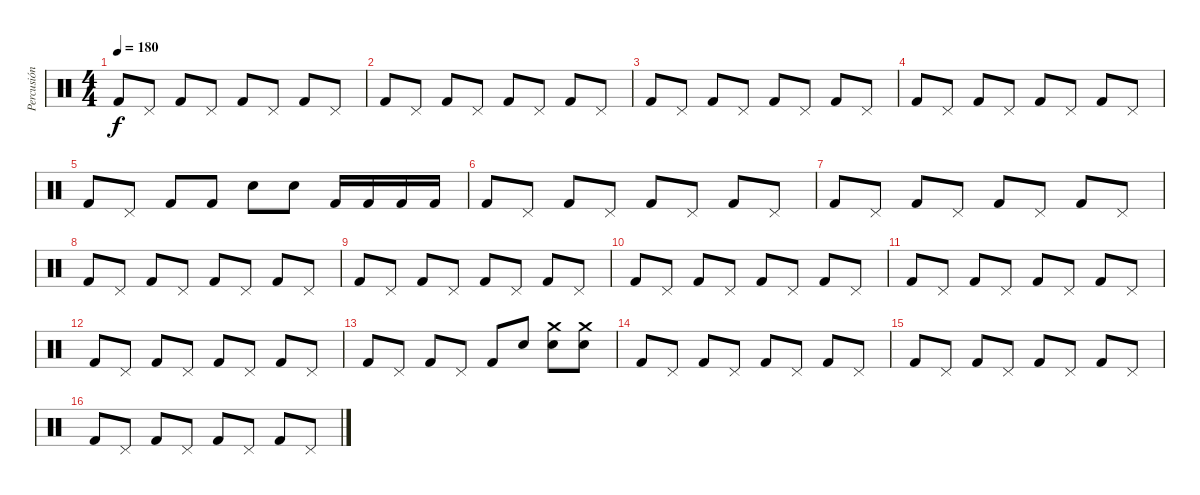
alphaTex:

\track ("Percusión" "Percusión") {instrument percussion}
\staff {score}
\articulation defaults
\ts (4 4)
\tempo 180
\clef neutral
\ks c "Kick (hit) 2".8{dy f} "Pedal Hi-Hat (hit)".8 "Kick (hit) 2".8 "Pedal Hi-Hat (hit)".8 "Kick (hit) 2".8 "Pedal Hi-Hat (hit)".8 "Kick (hit) 2".8 "Pedal Hi-Hat (hit)".8
|
"Kick (hit) 2".8 "Pedal Hi-Hat (hit)".8 "Kick (hit) 2".8 "Pedal Hi-Hat (hit)".8 "Kick (hit) 2".8 "Pedal Hi-Hat (hit)".8 "Kick (hit) 2".8 "Pedal Hi-Hat (hit)".8 |
"Kick (hit) 2".8 "Pedal Hi-Hat (hit)".8 "Kick (hit) 2".8 "Pedal Hi-Hat (hit)".8 "Kick (hit) 2".8 "Pedal Hi-Hat (hit)".8 "Kick (hit) 2".8 "Pedal Hi-Hat (hit)".8 |
"Kick (hit) 2".8 "Pedal Hi-Hat (hit)".8 "Kick (hit) 2".8 "Pedal Hi-Hat (hit)".8 "Kick (hit) 2".8 "Pedal Hi-Hat (hit)".8 "Kick (hit) 2".8 "Pedal Hi-Hat (hit)".8 |
"Kick (hit) 2".8 "Pedal Hi-Hat (hit)".8 "Kick (hit) 2".8 "Kick (hit) 2".8 "Snare (hit) 2".8 "Snare (hit) 2".8 "Kick (hit) 2".16 "Kick (hit) 2".16 "Kick (hit) 2".16 "Kick (hit) 2".16 |
"Kick (hit) 2".8 "Pedal Hi-Hat (hit)".8 "Kick (hit) 2".8 "Pedal Hi-Hat (hit)".8 "Kick (hit) 2".8 "Pedal Hi-Hat (hit)".8 "Kick (hit) 2".8 "Pedal Hi-Hat (hit)".8 |
"Kick (hit) 2".8 "Pedal Hi-Hat (hit)".8 "Kick (hit) 2".8 "Pedal Hi-Hat (hit)".8 "Kick (hit) 2".8 "Pedal Hi-Hat (hit)".8 "Kick (hit) 2".8 "Pedal Hi-Hat (hit)".8 |
"Kick (hit) 2".8 "Pedal Hi-Hat (hit)".8 "Kick (hit) 2".8 "Pedal Hi-Hat (hit)".8 "Kick (hit) 2".8 "Pedal Hi-Hat (hit)".8 "Kick (hit) 2".8 "Pedal Hi-Hat (hit)".8 |
"Kick (hit) 2".8 "Pedal Hi-Hat (hit)".8 "Kick (hit) 2".8 "Pedal Hi-Hat (hit)".8 "Kick (hit) 2".8 "Pedal Hi-Hat (hit)".8 "Kick (hit) 2".8 "Pedal Hi-Hat (hit)".8 |
"Kick (hit) 2".8 "Pedal Hi-Hat (hit)".8 "Kick (hit) 2".8 "Pedal Hi-Hat (hit)".8 "Kick (hit) 2".8 "Pedal Hi-Hat (hit)".8 "Kick (hit) 2".8 "Pedal Hi-Hat (hit)".8 |
"Kick (hit) 2".8 "Pedal Hi-Hat (hit)".8 "Kick (hit) 2".8 "Pedal Hi-Hat (hit)".8 "Kick (hit) 2".8 "Pedal Hi-Hat (hit)".8 "Kick (hit) 2".8 "Pedal Hi-Hat (hit)".8 |
"Kick (hit) 2".8 "Pedal Hi-Hat (hit)".8 "Kick (hit) 2".8 "Pedal Hi-Hat (hit)".8 "Kick (hit) 2".8 "Pedal Hi-Hat (hit)".8 "Kick (hit) 2".8 "Pedal Hi-Hat (hit)".8 |
"Kick (hit) 2".8 "Pedal Hi-Hat (hit)".8 "Kick (hit) 2".8 "Pedal Hi-Hat (hit)".8 "Kick (hit) 2".8 "Snare (hit) 2".8 ("Snare (hit) 2" "Crash medium (hit)").8 ("Snare (hit) 2" "Crash medium (hit)").8 |
"Kick (hit) 2".8 "Pedal Hi-Hat (hit)".8 "Kick (hit) 2".8 "Pedal Hi-Hat (hit)".8 "Kick (hit) 2".8 "Pedal Hi-Hat (hit)".8 "Kick (hit) 2".8 "Pedal Hi-Hat (hit)".8 |
"Kick (hit) 2".8 "Pedal Hi-Hat (hit)".8 "Kick (hit) 2".8 "Pedal Hi-Hat (hit)".8 "Kick (hit) 2".8 "Pedal Hi-Hat (hit)".8 "Kick (hit) 2".8 "Pedal Hi-Hat (hit)".8 |
"Kick (hit) 2".8 "Pedal Hi-Hat (hit)".8 "Kick (hit) 2".8 "Pedal Hi-Hat (hit)".8 "Kick (hit) 2".8 "Pedal Hi-Hat (hit)".8 "Kick (hit) 2".8 "Pedal Hi-Hat (hit)".8
